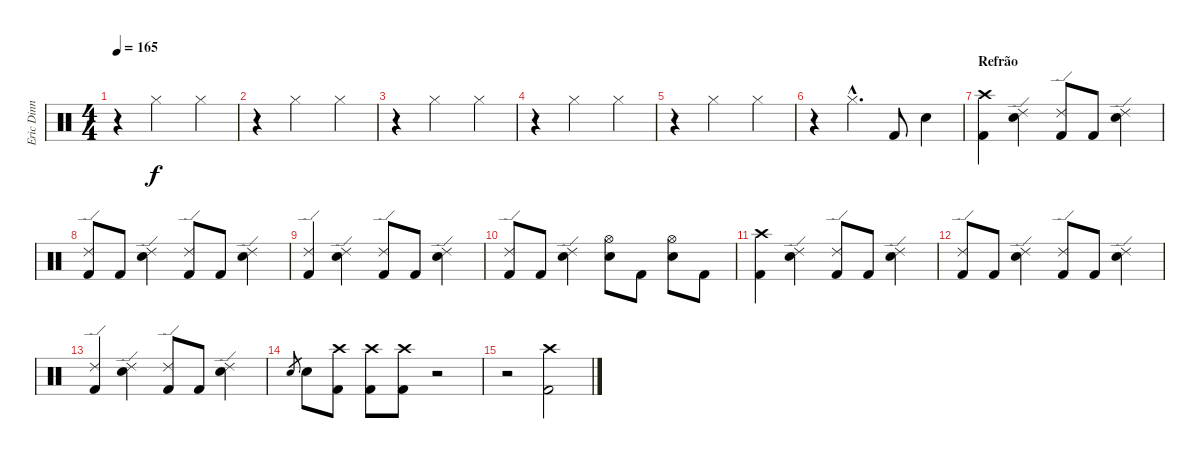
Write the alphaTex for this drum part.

\track ("Eric Dinn" "Eric Dinn") {instrument percussion}
\staff {score}
\articulation defaults
\ts (4 4)
\tempo 165
\clef neutral
\ks c
r.4{dy f} "Hi-Hat (closed)".2 "Hi-Hat (closed)".4 |
r.4 "Hi-Hat (closed)".2 "Hi-Hat (closed)".4 |
r.4 "Hi-Hat (closed)".2 "Hi-Hat (closed)".4 |
r.4 "Hi-Hat (closed)".2 "Hi-Hat (closed)".4 |
r.4 "Hi-Hat (closed)".2 "Hi-Hat (closed)".4 |
r.4 "Hi-Hat (closed)"{hac}.4{d} "Kick (hit) 2".8 "Snare (hit) 2".4 |
\section ("" "Refrão")
("Crash high (hit)" "Kick (hit) 2").4 ("Ride (edge) 2" "Snare (hit) 2").4 ("Ride (edge) 2" "Kick (hit) 2").8 "Kick (hit) 2".8 ("Ride (edge) 2" "Snare (hit) 2").4 |
("Ride (edge) 2" "Kick (hit) 2").8 "Kick (hit) 2".8 ("Ride (edge) 2" "Snare (hit) 2").4 ("Ride (edge) 2" "Kick (hit) 2").8 "Kick (hit) 2".8 ("Ride (edge) 2" "Snare (hit) 2").4 |
("Ride (edge) 2" "Kick (hit) 2").4 ("Ride (edge) 2" "Snare (hit) 2").4 ("Ride (edge) 2" "Kick (hit) 2").8 "Kick (hit) 2".8 ("Ride (edge) 2" "Snare (hit) 2").4 |
("Ride (edge) 2" "Kick (hit) 2").8 "Kick (hit) 2".8 ("Ride (edge) 2" "Snare (hit) 2").4 ("Hi-Hat (open)" "Snare (hit) 2").8 "Kick (hit) 2".8 ("Hi-Hat (open)" "Snare (hit) 2").8 "Kick (hit) 2".8 |
("Crash high (hit)" "Kick (hit) 2").4 ("Ride (edge) 2" "Snare (hit) 2").4 ("Ride (edge) 2" "Kick (hit) 2").8 "Kick (hit) 2".8 ("Ride (edge) 2" "Snare (hit) 2").4 |
("Ride (edge) 2" "Kick (hit) 2").8 "Kick (hit) 2".8 ("Ride (edge) 2" "Snare (hit) 2").4 ("Ride (edge) 2" "Kick (hit) 2").8 "Kick (hit) 2".8 ("Ride (edge) 2" "Snare (hit) 2").4 |
("Ride (edge) 2" "Kick (hit) 2").4 ("Ride (edge) 2" "Snare (hit) 2").4 ("Ride (edge) 2" "Kick (hit) 2").8 "Kick (hit) 2".8 ("Ride (edge) 2" "Snare (hit) 2").4 |
"Snare (hit) 2".8{gr} "Snare (hit) 2".8 ("Crash high (hit)" "Kick (hit) 2").8 ("Crash high (hit)" "Kick (hit) 2").8 ("Crash high (hit)" "Kick (hit) 2").8 r.2 |
r.2 ("Crash high (hit)" "Kick (hit) 2").2
